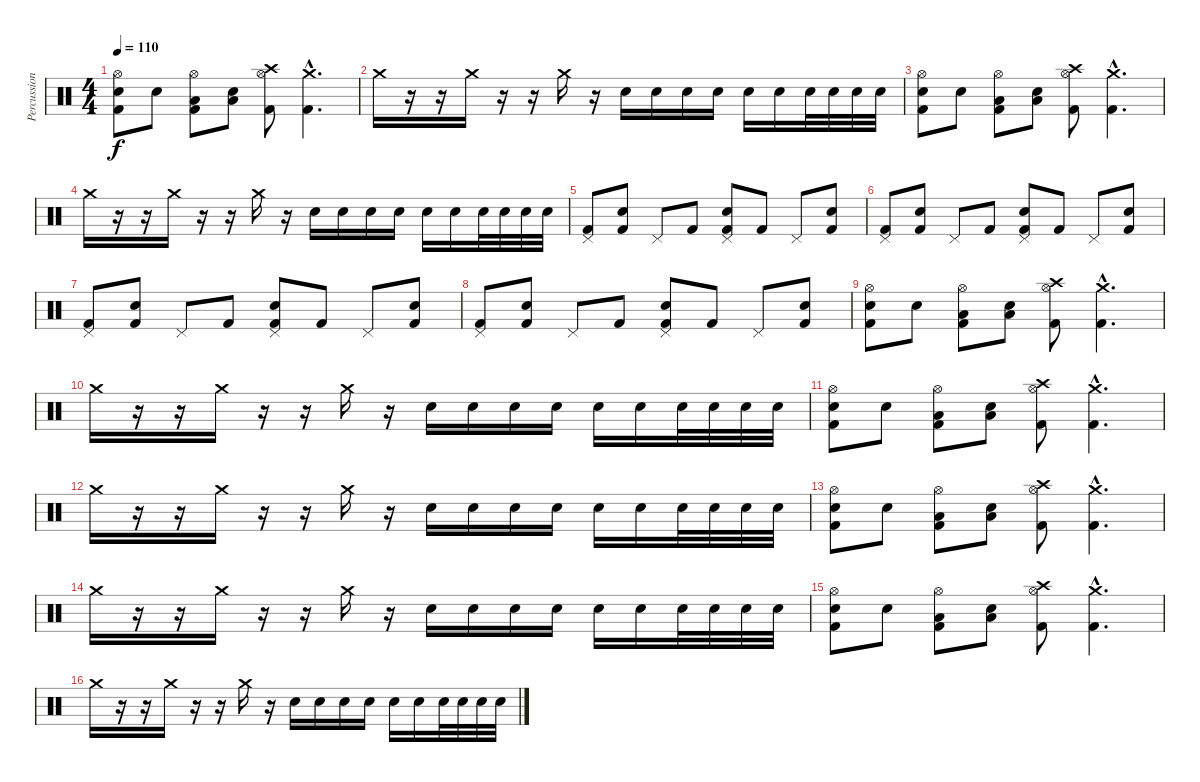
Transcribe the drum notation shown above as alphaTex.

\track ("Percussion" "Percussion") {instrument percussion}
\staff {score}
\articulation defaults
\ts (4 4)
\tempo 110
\clef neutral
\ks c
("Hi-Hat (open)" "Snare (hit) 2" "Kick (hit) 2").8{dy f} "Snare (hit) 2".8 ("Hi-Hat (open)" "Low Tom (hit)" "Kick (hit) 2").8 ("Low Tom (hit)" "Snare (hit) 2").8 ("Hi-Hat (open)" "Crash high (hit)" "Kick (hit) 2").8 ("Crash medium (hit)"{hac} "Kick (hit) 2"{hac}).4{d} |
"Crash medium (hit)".16 r.16 r.16 "Crash medium (hit)".16 r.16 r.16 "Crash medium (hit)".16 r.16 "Electric Snare (hit)".16 "Electric Snare (hit)".16 "Electric Snare (hit)".16 "Electric Snare (hit)".16 "Electric Snare (hit)".16 "Electric Snare (hit)".16 "Electric Snare (hit)".32 "Electric Snare (hit)".32 "Electric Snare (hit)".32 "Electric Snare (hit)".32 |
("Hi-Hat (open)" "Snare (hit) 2" "Kick (hit) 2").8 "Snare (hit) 2".8 ("Hi-Hat (open)" "Low Tom (hit)" "Kick (hit) 2").8 ("Low Tom (hit)" "Snare (hit) 2").8 ("Hi-Hat (open)" "Crash high (hit)" "Kick (hit) 2").8 ("Crash medium (hit)"{hac} "Kick (hit) 2"{hac}).4{d} |
"Crash medium (hit)".16 r.16 r.16 "Crash medium (hit)".16 r.16 r.16 "Crash medium (hit)".16 r.16 "Electric Snare (hit)".16 "Electric Snare (hit)".16 "Electric Snare (hit)".16 "Electric Snare (hit)".16 "Electric Snare (hit)".16 "Electric Snare (hit)".16 "Electric Snare (hit)".32 "Electric Snare (hit)".32 "Electric Snare (hit)".32 "Electric Snare (hit)".32 |
("Pedal Hi-Hat (hit)" "Kick (hit) 2").8 ("Electric Snare (hit)" "Kick (hit) 2").8 "Pedal Hi-Hat (hit)".8 "Kick (hit) 2".8 ("Pedal Hi-Hat (hit)" "Electric Snare (hit)" "Kick (hit) 2").8 "Kick (hit) 2".8 "Pedal Hi-Hat (hit)".8 ("Electric Snare (hit)" "Kick (hit) 2").8 |
("Pedal Hi-Hat (hit)" "Kick (hit) 2").8 ("Electric Snare (hit)" "Kick (hit) 2").8 "Pedal Hi-Hat (hit)".8 "Kick (hit) 2".8 ("Pedal Hi-Hat (hit)" "Electric Snare (hit)" "Kick (hit) 2").8 "Kick (hit) 2".8 "Pedal Hi-Hat (hit)".8 ("Electric Snare (hit)" "Kick (hit) 2").8 |
("Pedal Hi-Hat (hit)" "Kick (hit) 2").8 ("Electric Snare (hit)" "Kick (hit) 2").8 "Pedal Hi-Hat (hit)".8 "Kick (hit) 2".8 ("Pedal Hi-Hat (hit)" "Electric Snare (hit)" "Kick (hit) 2").8 "Kick (hit) 2".8 "Pedal Hi-Hat (hit)".8 ("Electric Snare (hit)" "Kick (hit) 2").8 |
("Pedal Hi-Hat (hit)" "Kick (hit) 2").8 ("Electric Snare (hit)" "Kick (hit) 2").8 "Pedal Hi-Hat (hit)".8 "Kick (hit) 2".8 ("Pedal Hi-Hat (hit)" "Electric Snare (hit)" "Kick (hit) 2").8 "Kick (hit) 2".8 "Pedal Hi-Hat (hit)".8 ("Electric Snare (hit)" "Kick (hit) 2").8 |
("Hi-Hat (open)" "Snare (hit) 2" "Kick (hit) 2").8 "Snare (hit) 2".8 ("Hi-Hat (open)" "Low Tom (hit)" "Kick (hit) 2").8 ("Low Tom (hit)" "Snare (hit) 2").8 ("Hi-Hat (open)" "Crash high (hit)" "Kick (hit) 2").8 ("Crash medium (hit)"{hac} "Kick (hit) 2"{hac}).4{d} |
"Crash medium (hit)".16 r.16 r.16 "Crash medium (hit)".16 r.16 r.16 "Crash medium (hit)".16 r.16 "Electric Snare (hit)".16 "Electric Snare (hit)".16 "Electric Snare (hit)".16 "Electric Snare (hit)".16 "Electric Snare (hit)".16 "Electric Snare (hit)".16 "Electric Snare (hit)".32 "Electric Snare (hit)".32 "Electric Snare (hit)".32 "Electric Snare (hit)".32 |
("Hi-Hat (open)" "Snare (hit) 2" "Kick (hit) 2").8 "Snare (hit) 2".8 ("Hi-Hat (open)" "Low Tom (hit)" "Kick (hit) 2").8 ("Low Tom (hit)" "Snare (hit) 2").8 ("Hi-Hat (open)" "Crash high (hit)" "Kick (hit) 2").8 ("Crash medium (hit)"{hac} "Kick (hit) 2"{hac}).4{d} |
"Crash medium (hit)".16 r.16 r.16 "Crash medium (hit)".16 r.16 r.16 "Crash medium (hit)".16 r.16 "Electric Snare (hit)".16 "Electric Snare (hit)".16 "Electric Snare (hit)".16 "Electric Snare (hit)".16 "Electric Snare (hit)".16 "Electric Snare (hit)".16 "Electric Snare (hit)".32 "Electric Snare (hit)".32 "Electric Snare (hit)".32 "Electric Snare (hit)".32 |
("Hi-Hat (open)" "Snare (hit) 2" "Kick (hit) 2").8 "Snare (hit) 2".8 ("Hi-Hat (open)" "Low Tom (hit)" "Kick (hit) 2").8 ("Low Tom (hit)" "Snare (hit) 2").8 ("Hi-Hat (open)" "Crash high (hit)" "Kick (hit) 2").8 ("Crash medium (hit)"{hac} "Kick (hit) 2"{hac}).4{d} |
"Crash medium (hit)".16 r.16 r.16 "Crash medium (hit)".16 r.16 r.16 "Crash medium (hit)".16 r.16 "Electric Snare (hit)".16 "Electric Snare (hit)".16 "Electric Snare (hit)".16 "Electric Snare (hit)".16 "Electric Snare (hit)".16 "Electric Snare (hit)".16 "Electric Snare (hit)".32 "Electric Snare (hit)".32 "Electric Snare (hit)".32 "Electric Snare (hit)".32 |
("Hi-Hat (open)" "Snare (hit) 2" "Kick (hit) 2").8 "Snare (hit) 2".8 ("Hi-Hat (open)" "Low Tom (hit)" "Kick (hit) 2").8 ("Low Tom (hit)" "Snare (hit) 2").8 ("Hi-Hat (open)" "Crash high (hit)" "Kick (hit) 2").8 ("Crash medium (hit)"{hac} "Kick (hit) 2"{hac}).4{d} |
"Crash medium (hit)".16 r.16 r.16 "Crash medium (hit)".16 r.16 r.16 "Crash medium (hit)".16 r.16 "Electric Snare (hit)".16 "Electric Snare (hit)".16 "Electric Snare (hit)".16 "Electric Snare (hit)".16 "Electric Snare (hit)".16 "Electric Snare (hit)".16 "Electric Snare (hit)".32 "Electric Snare (hit)".32 "Electric Snare (hit)".32 "Electric Snare (hit)".32
